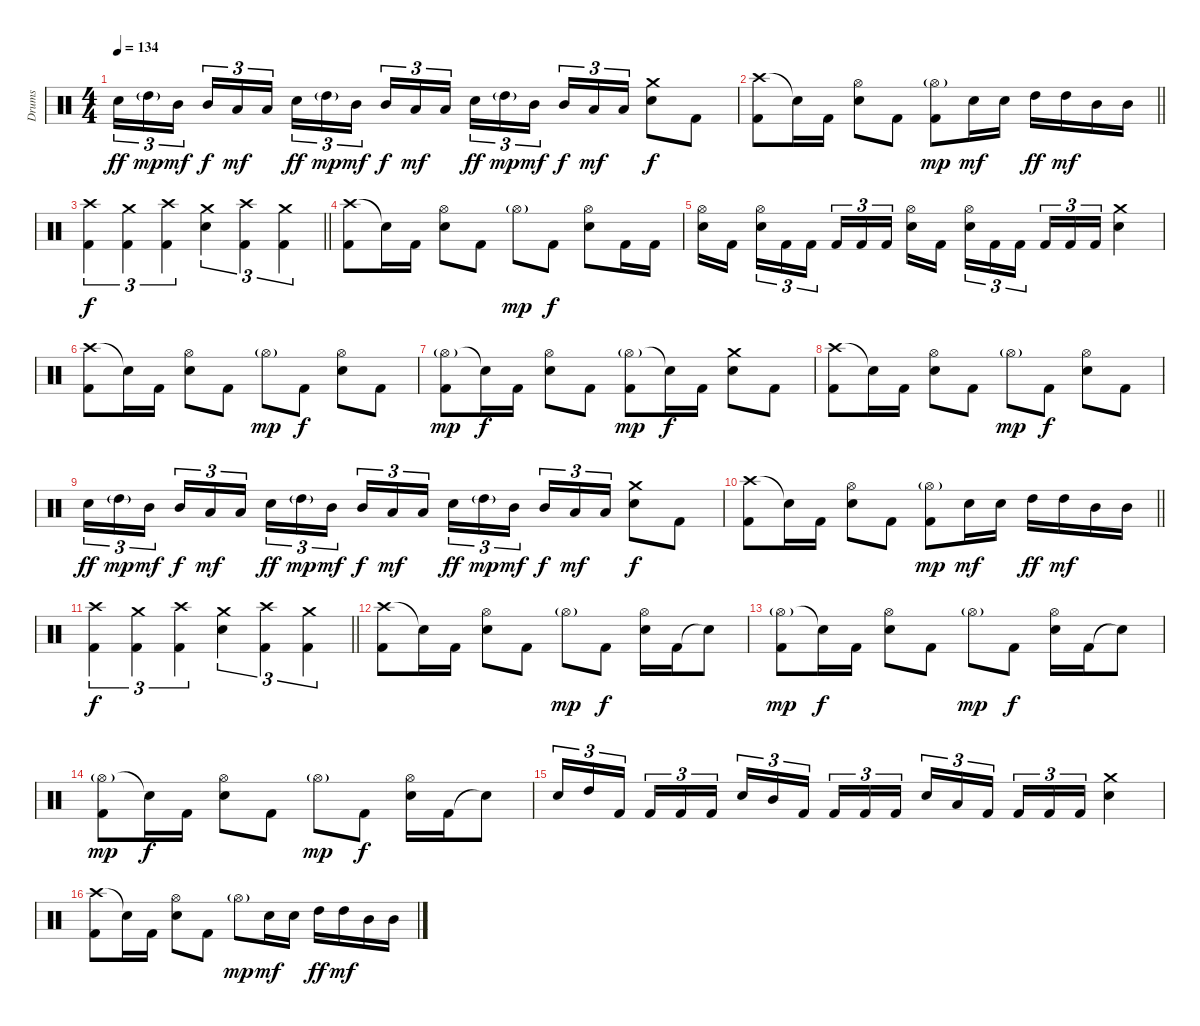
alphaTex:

\track ("Drums" "Drums") {instrument percussion}
\staff {score}
\articulation defaults
\ts (4 4)
\tempo 134
\clef neutral
\ks c "Electric Snare (hit)".16{tu (3 2) dy ff} "High Tom (hit)"{g}.16{tu (3 2) dy mp} "Mid Tom (hit)".16{tu (3 2) dy mf} "Mid Tom (hit)".16{tu (3 2) dy f} "Low Tom (hit)".16{tu (3 2) dy mf} "Low Tom (hit)".16{tu (3 2)} "Electric Snare (hit)".16{tu (3 2) dy ff} "High Tom (hit)"{g}.16{tu (3 2) dy mp} "Mid Tom (hit)".16{tu (3 2) dy mf} "Mid Tom (hit)".16{tu (3 2) dy f} "Low Tom (hit)".16{tu (3 2) dy mf} "Low Tom (hit)".16{tu (3 2)} "Electric Snare (hit)".16{tu (3 2) dy ff} "High Tom (hit)"{g}.16{tu (3 2) dy mp} "Mid Tom (hit)".16{tu (3 2) dy mf} "Mid Tom (hit)".16{tu (3 2) dy f} "Low Tom (hit)".16{tu (3 2) dy mf} "Low Tom (hit)".16{tu (3 2)}
("Crash medium (hit)" "Electric Snare (hit)").8{dy f} "Kick (hit) 2".8 |
\barLineRight lightlight
("Crash high (hit)" "Kick (hit) 2").8 "Snare (hit)"{t}.16 "Kick (hit) 2".16 ("Hi-Hat (open)" "Electric Snare (hit)").8 "Kick (hit) 2".8 ("Hi-Hat (open)"{g} "Kick (hit) 2").8{dy mp} "Electric Snare (hit)".16{dy mf} "Electric Snare (hit)".16 "High Tom (hit)".16{dy ff} "High Tom (hit)".16{dy mf} "Mid Tom (hit)".16 "Mid Tom (hit)".16 |
\barLineRight lightlight
("Crash high (hit)" "Kick (hit) 2").4{tu (3 2) dy f} ("Crash medium (hit)" "Kick (hit) 2").4{tu (3 2)} ("Crash high (hit)" "Kick (hit) 2").4{tu (3 2)} ("Crash medium (hit)" "Electric Snare (hit)").4{tu (3 2)} ("Crash high (hit)" "Kick (hit) 2").4{tu (3 2)} ("Crash medium (hit)" "Kick (hit) 2").4{tu (3 2)} |
("Crash high (hit)" "Kick (hit) 2").8 "Snare (hit)"{t}.16 "Kick (hit) 2".16 ("Hi-Hat (open)" "Electric Snare (hit)").8 "Kick (hit) 2".8 "Hi-Hat (open)"{g}.8{dy mp} "Kick (hit) 2".8{dy f} ("Hi-Hat (open)" "Electric Snare (hit)").8 "Kick (hit) 2".16 "Kick (hit) 2".16 |
("Hi-Hat (open)" "Electric Snare (hit)").16 "Kick (hit) 2".16 ("Hi-Hat (open)" "Electric Snare (hit)").16{tu (3 2)} "Kick (hit) 2".16{tu (3 2)} "Kick (hit) 2".16{tu (3 2)} "Kick (hit) 2".16{tu (3 2)} "Kick (hit) 2".16{tu (3 2)} "Kick (hit) 2".16{tu (3 2)} ("Hi-Hat (open)" "Electric Snare (hit)").16 "Kick (hit) 2".16 ("Hi-Hat (open)" "Electric Snare (hit)").16{tu (3 2)} "Kick (hit) 2".16{tu (3 2)} "Kick (hit) 2".16{tu (3 2)} "Kick (hit) 2".16{tu (3 2)} "Kick (hit) 2".16{tu (3 2)} "Kick (hit) 2".16{tu (3 2)} ("Crash medium (hit)" "Electric Snare (hit)").4 |
("Crash high (hit)" "Kick (hit) 2").8 "Snare (hit)"{t}.16 "Kick (hit) 2".16 ("Hi-Hat (open)" "Electric Snare (hit)").8 "Kick (hit) 2".8 "Hi-Hat (open)"{g}.8{dy mp} "Kick (hit) 2".8{dy f} ("Hi-Hat (open)" "Electric Snare (hit)").8 "Kick (hit) 2".8 |
("Hi-Hat (open)"{g} "Kick (hit) 2").8{dy mp} "Snare (hit)"{t}.16{dy f} "Kick (hit) 2".16 ("Hi-Hat (open)" "Electric Snare (hit)").8 "Kick (hit) 2".8 ("Hi-Hat (open)"{g} "Kick (hit) 2").8{dy mp} "Snare (hit)"{t}.16{dy f} "Kick (hit) 2".16 ("Crash medium (hit)" "Electric Snare (hit)").8 "Kick (hit) 2".8 |
("Crash high (hit)" "Kick (hit) 2").8 "Snare (hit)"{t}.16 "Kick (hit) 2".16 ("Hi-Hat (open)" "Electric Snare (hit)").8 "Kick (hit) 2".8 "Hi-Hat (open)"{g}.8{dy mp} "Kick (hit) 2".8{dy f} ("Hi-Hat (open)" "Electric Snare (hit)").8 "Kick (hit) 2".8 |
"Electric Snare (hit)".16{tu (3 2) dy ff} "High Tom (hit)"{g}.16{tu (3 2) dy mp} "Mid Tom (hit)".16{tu (3 2) dy mf} "Mid Tom (hit)".16{tu (3 2) dy f} "Low Tom (hit)".16{tu (3 2) dy mf} "Low Tom (hit)".16{tu (3 2)} "Electric Snare (hit)".16{tu (3 2) dy ff} "High Tom (hit)"{g}.16{tu (3 2) dy mp} "Mid Tom (hit)".16{tu (3 2) dy mf} "Mid Tom (hit)".16{tu (3 2) dy f} "Low Tom (hit)".16{tu (3 2) dy mf} "Low Tom (hit)".16{tu (3 2)} "Electric Snare (hit)".16{tu (3 2) dy ff} "High Tom (hit)"{g}.16{tu (3 2) dy mp} "Mid Tom (hit)".16{tu (3 2) dy mf} "Mid Tom (hit)".16{tu (3 2) dy f} "Low Tom (hit)".16{tu (3 2) dy mf} "Low Tom (hit)".16{tu (3 2)} ("Crash medium (hit)" "Electric Snare (hit)").8{dy f} "Kick (hit) 2".8 |
\barLineRight lightlight
("Crash high (hit)" "Kick (hit) 2").8 "Snare (hit)"{t}.16 "Kick (hit) 2".16 ("Hi-Hat (open)" "Electric Snare (hit)").8 "Kick (hit) 2".8 ("Hi-Hat (open)"{g} "Kick (hit) 2").8{dy mp} "Electric Snare (hit)".16{dy mf} "Electric Snare (hit)".16 "High Tom (hit)".16{dy ff} "High Tom (hit)".16{dy mf} "Mid Tom (hit)".16 "Mid Tom (hit)".16 |
\barLineRight lightlight
("Crash high (hit)" "Kick (hit) 2").4{tu (3 2) dy f} ("Crash medium (hit)" "Kick (hit) 2").4{tu (3 2)} ("Crash high (hit)" "Kick (hit) 2").4{tu (3 2)} ("Crash medium (hit)" "Electric Snare (hit)").4{tu (3 2)} ("Crash high (hit)" "Kick (hit) 2").4{tu (3 2)} ("Crash medium (hit)" "Kick (hit) 2").4{tu (3 2)} |
("Crash high (hit)" "Kick (hit) 2").8 "Snare (hit)"{t}.16 "Kick (hit) 2".16 ("Hi-Hat (open)" "Electric Snare (hit)").8 "Kick (hit) 2".8 "Hi-Hat (open)"{g}.8{dy mp} "Kick (hit) 2".8{dy f} ("Hi-Hat (open)" "Electric Snare (hit)").16 "Kick (hit) 2".16 "Snare (hit)"{t}.8 |
("Hi-Hat (open)"{g} "Kick (hit) 2").8{dy mp} "Snare (hit)"{t}.16{dy f} "Kick (hit) 2".16 ("Hi-Hat (open)" "Electric Snare (hit)").8 "Kick (hit) 2".8 "Hi-Hat (open)"{g}.8{dy mp} "Kick (hit) 2".8{dy f} ("Hi-Hat (open)" "Electric Snare (hit)").16 "Kick (hit) 2".16 "Snare (hit)"{t}.8 |
("Hi-Hat (open)"{g} "Kick (hit) 2").8{dy mp} "Snare (hit)"{t}.16{dy f} "Kick (hit) 2".16 ("Hi-Hat (open)" "Electric Snare (hit)").8 "Kick (hit) 2".8 "Hi-Hat (open)"{g}.8{dy mp} "Kick (hit) 2".8{dy f} ("Hi-Hat (open)" "Electric Snare (hit)").16 "Kick (hit) 2".16 "Snare (hit)"{t}.8 |
"Electric Snare (hit)".16{tu (3 2)} "High Tom (hit)".16{tu (3 2)} "Kick (hit) 2".16{tu (3 2)} "Kick (hit) 2".16{tu (3 2)} "Kick (hit) 2".16{tu (3 2)} "Kick (hit) 2".16{tu (3 2)} "Electric Snare (hit)".16{tu (3 2)} "Mid Tom (hit)".16{tu (3 2)} "Kick (hit) 2".16{tu (3 2)} "Kick (hit) 2".16{tu (3 2)} "Kick (hit) 2".16{tu (3 2)} "Kick (hit) 2".16{tu (3 2)} "Electric Snare (hit)".16{tu (3 2)} "Low Tom (hit)".16{tu (3 2)} "Kick (hit) 2".16{tu (3 2)} "Kick (hit) 2".16{tu (3 2)} "Kick (hit) 2".16{tu (3 2)} "Kick (hit) 2".16{tu (3 2)} ("Crash medium (hit)" "Electric Snare (hit)").4 |
("Crash high (hit)" "Kick (hit) 2").8 "Snare (hit)"{t}.16 "Kick (hit) 2".16 ("Hi-Hat (open)" "Electric Snare (hit)").8 "Kick (hit) 2".8 "Hi-Hat (open)"{g}.8{dy mp} "Electric Snare (hit)".16{dy mf} "Electric Snare (hit)".16 "High Tom (hit)".16{dy ff} "High Tom (hit)".16{dy mf} "Mid Tom (hit)".16 "Mid Tom (hit)".16
